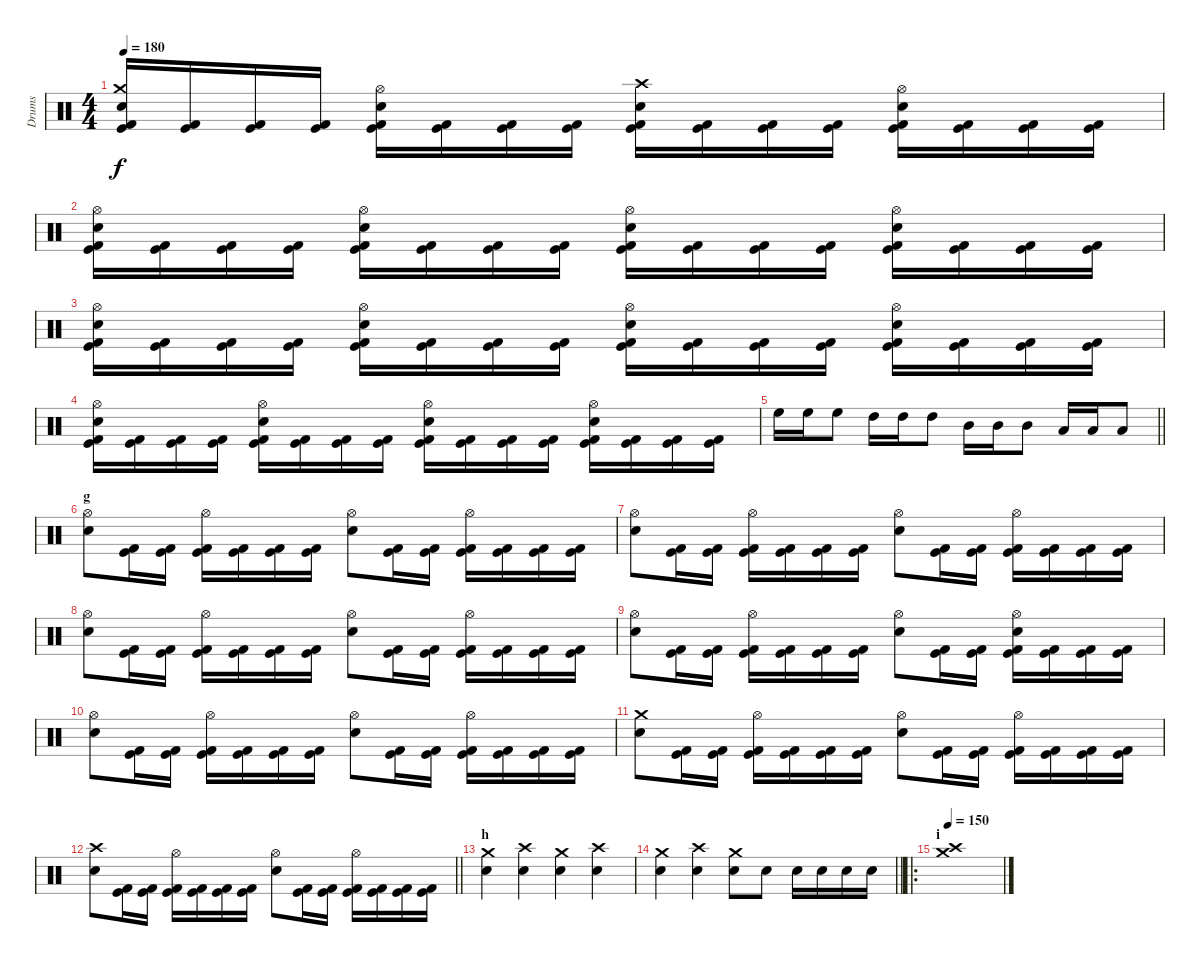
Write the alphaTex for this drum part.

\track ("Drums" "Drums") {instrument percussion}
\staff {score}
\articulation defaults
\ts (4 4)
\tempo 180
\clef neutral
\ks c
("Kick (hit)" "Kick (hit) 2" "Crash medium (hit)" "Electric Snare (hit)").16{dy f} ("Kick (hit)" "Kick (hit) 2").16 ("Kick (hit)" "Kick (hit) 2").16 ("Kick (hit)" "Kick (hit) 2").16 ("Kick (hit)" "Kick (hit) 2" "Hi-Hat (open)" "Electric Snare (hit)").16 ("Kick (hit)" "Kick (hit) 2").16 ("Kick (hit)" "Kick (hit) 2").16 ("Kick (hit)" "Kick (hit) 2").16 ("Kick (hit)" "Kick (hit) 2" "Crash high (hit)" "Electric Snare (hit)").16 ("Kick (hit)" "Kick (hit) 2").16 ("Kick (hit)" "Kick (hit) 2").16 ("Kick (hit)" "Kick (hit) 2").16 ("Kick (hit)" "Kick (hit) 2" "Hi-Hat (open)" "Electric Snare (hit)").16 ("Kick (hit)" "Kick (hit) 2").16 ("Kick (hit)" "Kick (hit) 2").16 ("Kick (hit)" "Kick (hit) 2").16 |
("Kick (hit)" "Kick (hit) 2" "Hi-Hat (open)" "Electric Snare (hit)").16 ("Kick (hit)" "Kick (hit) 2").16 ("Kick (hit)" "Kick (hit) 2").16 ("Kick (hit)" "Kick (hit) 2").16 ("Kick (hit)" "Kick (hit) 2" "Hi-Hat (open)" "Electric Snare (hit)").16 ("Kick (hit)" "Kick (hit) 2").16 ("Kick (hit)" "Kick (hit) 2").16 ("Kick (hit)" "Kick (hit) 2").16 ("Kick (hit)" "Kick (hit) 2" "Hi-Hat (open)" "Electric Snare (hit)").16 ("Kick (hit)" "Kick (hit) 2").16 ("Kick (hit)" "Kick (hit) 2").16 ("Kick (hit)" "Kick (hit) 2").16 ("Kick (hit)" "Kick (hit) 2" "Hi-Hat (open)" "Electric Snare (hit)").16 ("Kick (hit)" "Kick (hit) 2").16 ("Kick (hit)" "Kick (hit) 2").16 ("Kick (hit)" "Kick (hit) 2").16 |
("Kick (hit)" "Kick (hit) 2" "Hi-Hat (open)" "Electric Snare (hit)").16 ("Kick (hit)" "Kick (hit) 2").16 ("Kick (hit)" "Kick (hit) 2").16 ("Kick (hit)" "Kick (hit) 2").16 ("Kick (hit)" "Kick (hit) 2" "Hi-Hat (open)" "Electric Snare (hit)").16 ("Kick (hit)" "Kick (hit) 2").16 ("Kick (hit)" "Kick (hit) 2").16 ("Kick (hit)" "Kick (hit) 2").16 ("Kick (hit)" "Kick (hit) 2" "Hi-Hat (open)" "Electric Snare (hit)").16 ("Kick (hit)" "Kick (hit) 2").16 ("Kick (hit)" "Kick (hit) 2").16 ("Kick (hit)" "Kick (hit) 2").16 ("Kick (hit)" "Kick (hit) 2" "Hi-Hat (open)" "Electric Snare (hit)").16 ("Kick (hit)" "Kick (hit) 2").16 ("Kick (hit)" "Kick (hit) 2").16 ("Kick (hit)" "Kick (hit) 2").16 |
("Kick (hit)" "Kick (hit) 2" "Hi-Hat (open)" "Electric Snare (hit)").16 ("Kick (hit)" "Kick (hit) 2").16 ("Kick (hit)" "Kick (hit) 2").16 ("Kick (hit)" "Kick (hit) 2").16 ("Kick (hit)" "Kick (hit) 2" "Hi-Hat (open)" "Electric Snare (hit)").16 ("Kick (hit)" "Kick (hit) 2").16 ("Kick (hit)" "Kick (hit) 2").16 ("Kick (hit)" "Kick (hit) 2").16 ("Kick (hit)" "Kick (hit) 2" "Hi-Hat (open)" "Electric Snare (hit)").16 ("Kick (hit)" "Kick (hit) 2").16 ("Kick (hit)" "Kick (hit) 2").16 ("Kick (hit)" "Kick (hit) 2").16 ("Kick (hit)" "Kick (hit) 2" "Hi-Hat (open)" "Electric Snare (hit)").16 ("Kick (hit)" "Kick (hit) 2").16 ("Kick (hit)" "Kick (hit) 2").16 ("Kick (hit)" "Kick (hit) 2").16 |
\barLineRight lightlight "High Floor Tom (hit)".16 "High Floor Tom (hit)".16 "High Floor Tom (hit)".8 "High Tom (hit)".16 "High Tom (hit)".16 "High Tom (hit)".8 "Mid Tom (hit)".16 "Mid Tom (hit)".16 "Mid Tom (hit)".8 "Low Tom (hit)".16 "Low Tom (hit)".16 "Low Tom (hit)".8
|
\section ("" "g")
("Hi-Hat (open)" "Electric Snare (hit)").8 ("Kick (hit) 2" "Kick (hit)").16 ("Kick (hit) 2" "Kick (hit)").16 ("Kick (hit) 2" "Hi-Hat (open)" "Kick (hit)").16 ("Kick (hit) 2" "Kick (hit)").16 ("Kick (hit) 2" "Kick (hit)").16 ("Kick (hit) 2" "Kick (hit)").16 ("Hi-Hat (open)" "Electric Snare (hit)").8 ("Kick (hit) 2" "Kick (hit)").16 ("Kick (hit) 2" "Kick (hit)").16 ("Kick (hit) 2" "Hi-Hat (open)" "Kick (hit)").16 ("Kick (hit) 2" "Kick (hit)").16 ("Kick (hit) 2" "Kick (hit)").16 ("Kick (hit) 2" "Kick (hit)").16 |
("Hi-Hat (open)" "Electric Snare (hit)").8 ("Kick (hit) 2" "Kick (hit)").16 ("Kick (hit) 2" "Kick (hit)").16 ("Kick (hit) 2" "Hi-Hat (open)" "Kick (hit)").16 ("Kick (hit) 2" "Kick (hit)").16 ("Kick (hit) 2" "Kick (hit)").16 ("Kick (hit) 2" "Kick (hit)").16 ("Hi-Hat (open)" "Electric Snare (hit)").8 ("Kick (hit) 2" "Kick (hit)").16 ("Kick (hit) 2" "Kick (hit)").16 ("Kick (hit) 2" "Hi-Hat (open)" "Kick (hit)").16 ("Kick (hit) 2" "Kick (hit)").16 ("Kick (hit) 2" "Kick (hit)").16 ("Kick (hit) 2" "Kick (hit)").16 |
("Hi-Hat (open)" "Electric Snare (hit)").8 ("Kick (hit) 2" "Kick (hit)").16 ("Kick (hit) 2" "Kick (hit)").16 ("Kick (hit) 2" "Hi-Hat (open)" "Kick (hit)").16 ("Kick (hit) 2" "Kick (hit)").16 ("Kick (hit) 2" "Kick (hit)").16 ("Kick (hit) 2" "Kick (hit)").16 ("Hi-Hat (open)" "Electric Snare (hit)").8 ("Kick (hit) 2" "Kick (hit)").16 ("Kick (hit) 2" "Kick (hit)").16 ("Kick (hit) 2" "Hi-Hat (open)" "Kick (hit)").16 ("Kick (hit) 2" "Kick (hit)").16 ("Kick (hit) 2" "Kick (hit)").16 ("Kick (hit) 2" "Kick (hit)").16 |
("Hi-Hat (open)" "Electric Snare (hit)").8 ("Kick (hit) 2" "Kick (hit)").16 ("Kick (hit) 2" "Kick (hit)").16 ("Kick (hit) 2" "Hi-Hat (open)" "Kick (hit)").16 ("Kick (hit) 2" "Kick (hit)").16 ("Kick (hit) 2" "Kick (hit)").16 ("Kick (hit) 2" "Kick (hit)").16 ("Hi-Hat (open)" "Electric Snare (hit)").8 ("Kick (hit) 2" "Kick (hit)").16 ("Kick (hit) 2" "Kick (hit)").16 ("Kick (hit) 2" "Hi-Hat (open)" "Kick (hit)" "Electric Snare (hit)").16 ("Kick (hit) 2" "Kick (hit)").16 ("Kick (hit) 2" "Kick (hit)").16 ("Kick (hit) 2" "Kick (hit)").16 |
("Hi-Hat (open)" "Electric Snare (hit)").8 ("Kick (hit) 2" "Kick (hit)").16 ("Kick (hit) 2" "Kick (hit)").16 ("Kick (hit) 2" "Hi-Hat (open)" "Kick (hit)").16 ("Kick (hit) 2" "Kick (hit)").16 ("Kick (hit) 2" "Kick (hit)").16 ("Kick (hit) 2" "Kick (hit)").16 ("Hi-Hat (open)" "Electric Snare (hit)").8 ("Kick (hit) 2" "Kick (hit)").16 ("Kick (hit) 2" "Kick (hit)").16 ("Kick (hit) 2" "Hi-Hat (open)" "Kick (hit)").16 ("Kick (hit) 2" "Kick (hit)").16 ("Kick (hit) 2" "Kick (hit)").16 ("Kick (hit) 2" "Kick (hit)").16 |
("Crash medium (hit)" "Electric Snare (hit)").8 ("Kick (hit) 2" "Kick (hit)").16 ("Kick (hit) 2" "Kick (hit)").16 ("Kick (hit) 2" "Hi-Hat (open)" "Kick (hit)").16 ("Kick (hit) 2" "Kick (hit)").16 ("Kick (hit) 2" "Kick (hit)").16 ("Kick (hit) 2" "Kick (hit)").16 ("Hi-Hat (open)" "Electric Snare (hit)").8 ("Kick (hit) 2" "Kick (hit)").16 ("Kick (hit) 2" "Kick (hit)").16 ("Kick (hit) 2" "Hi-Hat (open)" "Kick (hit)").16 ("Kick (hit) 2" "Kick (hit)").16 ("Kick (hit) 2" "Kick (hit)").16 ("Kick (hit) 2" "Kick (hit)").16 |
\barLineRight lightlight
("Crash high (hit)" "Electric Snare (hit)").8 ("Kick (hit) 2" "Kick (hit)").16 ("Kick (hit) 2" "Kick (hit)").16 ("Kick (hit) 2" "Hi-Hat (open)" "Kick (hit)").16 ("Kick (hit) 2" "Kick (hit)").16 ("Kick (hit) 2" "Kick (hit)").16 ("Kick (hit) 2" "Kick (hit)").16 ("Hi-Hat (open)" "Electric Snare (hit)").8 ("Kick (hit) 2" "Kick (hit)").16 ("Kick (hit) 2" "Kick (hit)").16 ("Kick (hit) 2" "Hi-Hat (open)" "Kick (hit)").16 ("Kick (hit) 2" "Kick (hit)").16 ("Kick (hit) 2" "Kick (hit)").16 ("Kick (hit) 2" "Kick (hit)").16 |
\section ("" "h")
("Snare (hit) 2" "Crash medium (hit)").4 ("Snare (hit) 2" "Crash high (hit)").4 ("Snare (hit) 2" "Crash medium (hit)").4 ("Snare (hit) 2" "Crash high (hit)").4 |
\barLineRight lightlight
("Snare (hit) 2" "Crash medium (hit)").4 ("Snare (hit) 2" "Crash high (hit)").4 ("Snare (hit) 2" "Crash medium (hit)").8 "Electric Snare (hit)".8 "Electric Snare (hit)".16 "Electric Snare (hit)".16 "Electric Snare (hit)".16 "Electric Snare (hit)".16 |
\ro
\section ("" "i")
\tempo 150
("Crash high (hit)" "Crash medium (hit)").1
